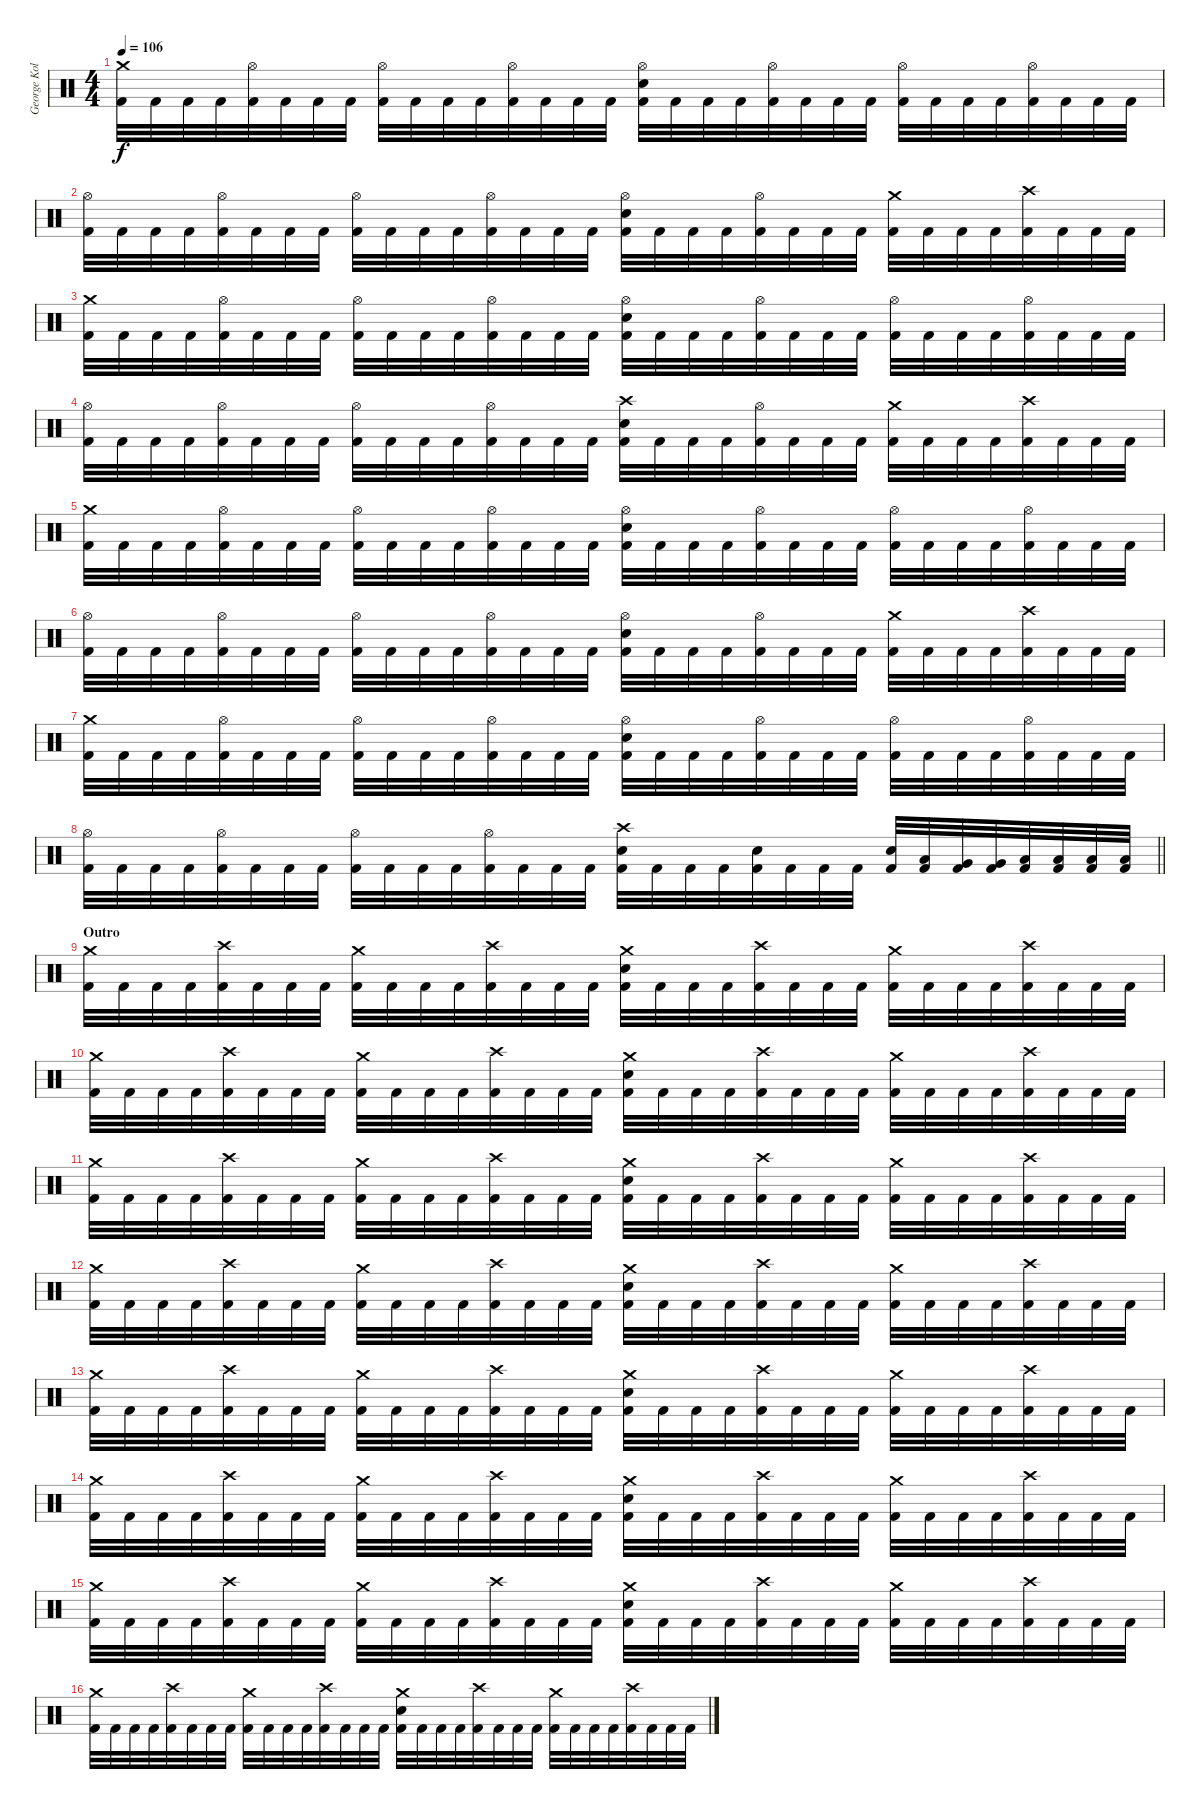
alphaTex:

\track ("George Kollias" "George Kol") {instrument percussion}
\staff {score}
\articulation defaults
\ts (4 4)
\tempo 106
\clef neutral
\ks c
("Crash medium (hit)" "Kick (hit) 2").32{dy f} "Kick (hit) 2".32 "Kick (hit) 2".32 "Kick (hit) 2".32 ("Hi-Hat (open)" "Kick (hit) 2").32 "Kick (hit) 2".32 "Kick (hit) 2".32 "Kick (hit) 2".32 ("Hi-Hat (open)" "Kick (hit) 2").32 "Kick (hit) 2".32 "Kick (hit) 2".32 "Kick (hit) 2".32 ("Hi-Hat (open)" "Kick (hit) 2").32 "Kick (hit) 2".32 "Kick (hit) 2".32 "Kick (hit) 2".32 ("Hi-Hat (open)" "Electric Snare (hit)" "Kick (hit) 2").32 "Kick (hit) 2".32 "Kick (hit) 2".32 "Kick (hit) 2".32 ("Hi-Hat (open)" "Kick (hit) 2").32 "Kick (hit) 2".32 "Kick (hit) 2".32 "Kick (hit) 2".32 ("Hi-Hat (open)" "Kick (hit) 2").32 "Kick (hit) 2".32 "Kick (hit) 2".32 "Kick (hit) 2".32 ("Hi-Hat (open)" "Kick (hit) 2").32 "Kick (hit) 2".32 "Kick (hit) 2".32 "Kick (hit) 2".32 |
("Hi-Hat (open)" "Kick (hit) 2").32 "Kick (hit) 2".32 "Kick (hit) 2".32 "Kick (hit) 2".32 ("Hi-Hat (open)" "Kick (hit) 2").32 "Kick (hit) 2".32 "Kick (hit) 2".32 "Kick (hit) 2".32 ("Hi-Hat (open)" "Kick (hit) 2").32 "Kick (hit) 2".32 "Kick (hit) 2".32 "Kick (hit) 2".32 ("Hi-Hat (open)" "Kick (hit) 2").32 "Kick (hit) 2".32 "Kick (hit) 2".32 "Kick (hit) 2".32 ("Hi-Hat (open)" "Electric Snare (hit)" "Kick (hit) 2").32 "Kick (hit) 2".32 "Kick (hit) 2".32 "Kick (hit) 2".32 ("Hi-Hat (open)" "Kick (hit) 2").32 "Kick (hit) 2".32 "Kick (hit) 2".32 "Kick (hit) 2".32 ("Crash medium (hit)" "Kick (hit) 2").32 "Kick (hit) 2".32 "Kick (hit) 2".32 "Kick (hit) 2".32 ("Crash high (hit)" "Kick (hit) 2").32 "Kick (hit) 2".32 "Kick (hit) 2".32 "Kick (hit) 2".32 |
("Crash medium (hit)" "Kick (hit) 2").32 "Kick (hit) 2".32 "Kick (hit) 2".32 "Kick (hit) 2".32 ("Hi-Hat (open)" "Kick (hit) 2").32 "Kick (hit) 2".32 "Kick (hit) 2".32 "Kick (hit) 2".32 ("Hi-Hat (open)" "Kick (hit) 2").32 "Kick (hit) 2".32 "Kick (hit) 2".32 "Kick (hit) 2".32 ("Hi-Hat (open)" "Kick (hit) 2").32 "Kick (hit) 2".32 "Kick (hit) 2".32 "Kick (hit) 2".32 ("Hi-Hat (open)" "Electric Snare (hit)" "Kick (hit) 2").32 "Kick (hit) 2".32 "Kick (hit) 2".32 "Kick (hit) 2".32 ("Hi-Hat (open)" "Kick (hit) 2").32 "Kick (hit) 2".32 "Kick (hit) 2".32 "Kick (hit) 2".32 ("Hi-Hat (open)" "Kick (hit) 2").32 "Kick (hit) 2".32 "Kick (hit) 2".32 "Kick (hit) 2".32 ("Hi-Hat (open)" "Kick (hit) 2").32 "Kick (hit) 2".32 "Kick (hit) 2".32 "Kick (hit) 2".32 |
("Hi-Hat (open)" "Kick (hit) 2").32 "Kick (hit) 2".32 "Kick (hit) 2".32 "Kick (hit) 2".32 ("Hi-Hat (open)" "Kick (hit) 2").32 "Kick (hit) 2".32 "Kick (hit) 2".32 "Kick (hit) 2".32 ("Hi-Hat (open)" "Kick (hit) 2").32 "Kick (hit) 2".32 "Kick (hit) 2".32 "Kick (hit) 2".32 ("Hi-Hat (open)" "Kick (hit) 2").32 "Kick (hit) 2".32 "Kick (hit) 2".32 "Kick (hit) 2".32 ("Crash high (hit)" "Electric Snare (hit)" "Kick (hit) 2").32 "Kick (hit) 2".32 "Kick (hit) 2".32 "Kick (hit) 2".32 ("Hi-Hat (open)" "Kick (hit) 2").32 "Kick (hit) 2".32 "Kick (hit) 2".32 "Kick (hit) 2".32 ("Crash medium (hit)" "Kick (hit) 2").32 "Kick (hit) 2".32 "Kick (hit) 2".32 "Kick (hit) 2".32 ("Crash high (hit)" "Kick (hit) 2").32 "Kick (hit) 2".32 "Kick (hit) 2".32 "Kick (hit) 2".32 |
("Crash medium (hit)" "Kick (hit) 2").32 "Kick (hit) 2".32 "Kick (hit) 2".32 "Kick (hit) 2".32 ("Hi-Hat (open)" "Kick (hit) 2").32 "Kick (hit) 2".32 "Kick (hit) 2".32 "Kick (hit) 2".32 ("Hi-Hat (open)" "Kick (hit) 2").32 "Kick (hit) 2".32 "Kick (hit) 2".32 "Kick (hit) 2".32 ("Hi-Hat (open)" "Kick (hit) 2").32 "Kick (hit) 2".32 "Kick (hit) 2".32 "Kick (hit) 2".32 ("Hi-Hat (open)" "Electric Snare (hit)" "Kick (hit) 2").32 "Kick (hit) 2".32 "Kick (hit) 2".32 "Kick (hit) 2".32 ("Hi-Hat (open)" "Kick (hit) 2").32 "Kick (hit) 2".32 "Kick (hit) 2".32 "Kick (hit) 2".32 ("Hi-Hat (open)" "Kick (hit) 2").32 "Kick (hit) 2".32 "Kick (hit) 2".32 "Kick (hit) 2".32 ("Hi-Hat (open)" "Kick (hit) 2").32 "Kick (hit) 2".32 "Kick (hit) 2".32 "Kick (hit) 2".32 |
("Hi-Hat (open)" "Kick (hit) 2").32 "Kick (hit) 2".32 "Kick (hit) 2".32 "Kick (hit) 2".32 ("Hi-Hat (open)" "Kick (hit) 2").32 "Kick (hit) 2".32 "Kick (hit) 2".32 "Kick (hit) 2".32 ("Hi-Hat (open)" "Kick (hit) 2").32 "Kick (hit) 2".32 "Kick (hit) 2".32 "Kick (hit) 2".32 ("Hi-Hat (open)" "Kick (hit) 2").32 "Kick (hit) 2".32 "Kick (hit) 2".32 "Kick (hit) 2".32 ("Hi-Hat (open)" "Electric Snare (hit)" "Kick (hit) 2").32 "Kick (hit) 2".32 "Kick (hit) 2".32 "Kick (hit) 2".32 ("Hi-Hat (open)" "Kick (hit) 2").32 "Kick (hit) 2".32 "Kick (hit) 2".32 "Kick (hit) 2".32 ("Crash medium (hit)" "Kick (hit) 2").32 "Kick (hit) 2".32 "Kick (hit) 2".32 "Kick (hit) 2".32 ("Crash high (hit)" "Kick (hit) 2").32 "Kick (hit) 2".32 "Kick (hit) 2".32 "Kick (hit) 2".32 |
("Crash medium (hit)" "Kick (hit) 2").32 "Kick (hit) 2".32 "Kick (hit) 2".32 "Kick (hit) 2".32 ("Hi-Hat (open)" "Kick (hit) 2").32 "Kick (hit) 2".32 "Kick (hit) 2".32 "Kick (hit) 2".32 ("Hi-Hat (open)" "Kick (hit) 2").32 "Kick (hit) 2".32 "Kick (hit) 2".32 "Kick (hit) 2".32 ("Hi-Hat (open)" "Kick (hit) 2").32 "Kick (hit) 2".32 "Kick (hit) 2".32 "Kick (hit) 2".32 ("Hi-Hat (open)" "Electric Snare (hit)" "Kick (hit) 2").32 "Kick (hit) 2".32 "Kick (hit) 2".32 "Kick (hit) 2".32 ("Hi-Hat (open)" "Kick (hit) 2").32 "Kick (hit) 2".32 "Kick (hit) 2".32 "Kick (hit) 2".32 ("Hi-Hat (open)" "Kick (hit) 2").32 "Kick (hit) 2".32 "Kick (hit) 2".32 "Kick (hit) 2".32 ("Hi-Hat (open)" "Kick (hit) 2").32 "Kick (hit) 2".32 "Kick (hit) 2".32 "Kick (hit) 2".32 |
\barLineRight lightlight
("Hi-Hat (open)" "Kick (hit) 2").32 "Kick (hit) 2".32 "Kick (hit) 2".32 "Kick (hit) 2".32 ("Hi-Hat (open)" "Kick (hit) 2").32 "Kick (hit) 2".32 "Kick (hit) 2".32 "Kick (hit) 2".32 ("Hi-Hat (open)" "Kick (hit) 2").32 "Kick (hit) 2".32 "Kick (hit) 2".32 "Kick (hit) 2".32 ("Hi-Hat (open)" "Kick (hit) 2").32 "Kick (hit) 2".32 "Kick (hit) 2".32 "Kick (hit) 2".32 ("Crash high (hit)" "Electric Snare (hit)" "Kick (hit) 2").32 "Kick (hit) 2".32 "Kick (hit) 2".32 "Kick (hit) 2".32 ("Electric Snare (hit)" "Kick (hit) 2").32 "Kick (hit) 2".32 "Kick (hit) 2".32 "Kick (hit) 2".32 ("Electric Snare (hit)" "Kick (hit) 2").32 ("Low Tom (hit)" "Kick (hit) 2").32 ("Very Low Tom (hit)" "Kick (hit) 2").32 ("Very Low Tom (hit)" "Kick (hit) 2").32 ("Low Floor Tom (hit)" "Kick (hit) 2").32 ("Low Floor Tom (hit)" "Kick (hit) 2").32 ("Low Floor Tom (hit)" "Kick (hit) 2").32 ("Low Floor Tom (hit)" "Kick (hit) 2").32 |
\section ("" "Outro")
("Crash medium (hit)" "Kick (hit) 2").32 "Kick (hit) 2".32 "Kick (hit) 2".32 "Kick (hit) 2".32 ("Crash high (hit)" "Kick (hit) 2").32 "Kick (hit) 2".32 "Kick (hit) 2".32 "Kick (hit) 2".32 ("Crash medium (hit)" "Kick (hit) 2").32 "Kick (hit) 2".32 "Kick (hit) 2".32 "Kick (hit) 2".32 ("Crash high (hit)" "Kick (hit) 2").32 "Kick (hit) 2".32 "Kick (hit) 2".32 "Kick (hit) 2".32 ("Crash medium (hit)" "Electric Snare (hit)" "Kick (hit) 2").32 "Kick (hit) 2".32 "Kick (hit) 2".32 "Kick (hit) 2".32 ("Crash high (hit)" "Kick (hit) 2").32 "Kick (hit) 2".32 "Kick (hit) 2".32 "Kick (hit) 2".32 ("Crash medium (hit)" "Kick (hit) 2").32 "Kick (hit) 2".32 "Kick (hit) 2".32 "Kick (hit) 2".32 ("Crash high (hit)" "Kick (hit) 2").32 "Kick (hit) 2".32 "Kick (hit) 2".32 "Kick (hit) 2".32 |
("Crash medium (hit)" "Kick (hit) 2").32 "Kick (hit) 2".32 "Kick (hit) 2".32 "Kick (hit) 2".32 ("Crash high (hit)" "Kick (hit) 2").32 "Kick (hit) 2".32 "Kick (hit) 2".32 "Kick (hit) 2".32 ("Crash medium (hit)" "Kick (hit) 2").32 "Kick (hit) 2".32 "Kick (hit) 2".32 "Kick (hit) 2".32 ("Crash high (hit)" "Kick (hit) 2").32 "Kick (hit) 2".32 "Kick (hit) 2".32 "Kick (hit) 2".32 ("Crash medium (hit)" "Electric Snare (hit)" "Kick (hit) 2").32 "Kick (hit) 2".32 "Kick (hit) 2".32 "Kick (hit) 2".32 ("Crash high (hit)" "Kick (hit) 2").32 "Kick (hit) 2".32 "Kick (hit) 2".32 "Kick (hit) 2".32 ("Crash medium (hit)" "Kick (hit) 2").32 "Kick (hit) 2".32 "Kick (hit) 2".32 "Kick (hit) 2".32 ("Crash high (hit)" "Kick (hit) 2").32 "Kick (hit) 2".32 "Kick (hit) 2".32 "Kick (hit) 2".32 |
("Crash medium (hit)" "Kick (hit) 2").32 "Kick (hit) 2".32 "Kick (hit) 2".32 "Kick (hit) 2".32 ("Crash high (hit)" "Kick (hit) 2").32 "Kick (hit) 2".32 "Kick (hit) 2".32 "Kick (hit) 2".32 ("Crash medium (hit)" "Kick (hit) 2").32 "Kick (hit) 2".32 "Kick (hit) 2".32 "Kick (hit) 2".32 ("Crash high (hit)" "Kick (hit) 2").32 "Kick (hit) 2".32 "Kick (hit) 2".32 "Kick (hit) 2".32 ("Crash medium (hit)" "Electric Snare (hit)" "Kick (hit) 2").32 "Kick (hit) 2".32 "Kick (hit) 2".32 "Kick (hit) 2".32 ("Crash high (hit)" "Kick (hit) 2").32 "Kick (hit) 2".32 "Kick (hit) 2".32 "Kick (hit) 2".32 ("Crash medium (hit)" "Kick (hit) 2").32 "Kick (hit) 2".32 "Kick (hit) 2".32 "Kick (hit) 2".32 ("Crash high (hit)" "Kick (hit) 2").32 "Kick (hit) 2".32 "Kick (hit) 2".32 "Kick (hit) 2".32 |
("Crash medium (hit)" "Kick (hit) 2").32 "Kick (hit) 2".32 "Kick (hit) 2".32 "Kick (hit) 2".32 ("Crash high (hit)" "Kick (hit) 2").32 "Kick (hit) 2".32 "Kick (hit) 2".32 "Kick (hit) 2".32 ("Crash medium (hit)" "Kick (hit) 2").32 "Kick (hit) 2".32 "Kick (hit) 2".32 "Kick (hit) 2".32 ("Crash high (hit)" "Kick (hit) 2").32 "Kick (hit) 2".32 "Kick (hit) 2".32 "Kick (hit) 2".32 ("Crash medium (hit)" "Electric Snare (hit)" "Kick (hit) 2").32 "Kick (hit) 2".32 "Kick (hit) 2".32 "Kick (hit) 2".32 ("Crash high (hit)" "Kick (hit) 2").32 "Kick (hit) 2".32 "Kick (hit) 2".32 "Kick (hit) 2".32 ("Crash medium (hit)" "Kick (hit) 2").32 "Kick (hit) 2".32 "Kick (hit) 2".32 "Kick (hit) 2".32 ("Crash high (hit)" "Kick (hit) 2").32 "Kick (hit) 2".32 "Kick (hit) 2".32 "Kick (hit) 2".32 |
("Crash medium (hit)" "Kick (hit) 2").32 "Kick (hit) 2".32 "Kick (hit) 2".32 "Kick (hit) 2".32 ("Crash high (hit)" "Kick (hit) 2").32 "Kick (hit) 2".32 "Kick (hit) 2".32 "Kick (hit) 2".32 ("Crash medium (hit)" "Kick (hit) 2").32 "Kick (hit) 2".32 "Kick (hit) 2".32 "Kick (hit) 2".32 ("Crash high (hit)" "Kick (hit) 2").32 "Kick (hit) 2".32 "Kick (hit) 2".32 "Kick (hit) 2".32 ("Crash medium (hit)" "Electric Snare (hit)" "Kick (hit) 2").32 "Kick (hit) 2".32 "Kick (hit) 2".32 "Kick (hit) 2".32 ("Crash high (hit)" "Kick (hit) 2").32 "Kick (hit) 2".32 "Kick (hit) 2".32 "Kick (hit) 2".32 ("Crash medium (hit)" "Kick (hit) 2").32 "Kick (hit) 2".32 "Kick (hit) 2".32 "Kick (hit) 2".32 ("Crash high (hit)" "Kick (hit) 2").32 "Kick (hit) 2".32 "Kick (hit) 2".32 "Kick (hit) 2".32 |
("Crash medium (hit)" "Kick (hit) 2").32 "Kick (hit) 2".32 "Kick (hit) 2".32 "Kick (hit) 2".32 ("Crash high (hit)" "Kick (hit) 2").32 "Kick (hit) 2".32 "Kick (hit) 2".32 "Kick (hit) 2".32 ("Crash medium (hit)" "Kick (hit) 2").32 "Kick (hit) 2".32 "Kick (hit) 2".32 "Kick (hit) 2".32 ("Crash high (hit)" "Kick (hit) 2").32 "Kick (hit) 2".32 "Kick (hit) 2".32 "Kick (hit) 2".32 ("Crash medium (hit)" "Electric Snare (hit)" "Kick (hit) 2").32 "Kick (hit) 2".32 "Kick (hit) 2".32 "Kick (hit) 2".32 ("Crash high (hit)" "Kick (hit) 2").32 "Kick (hit) 2".32 "Kick (hit) 2".32 "Kick (hit) 2".32 ("Crash medium (hit)" "Kick (hit) 2").32 "Kick (hit) 2".32 "Kick (hit) 2".32 "Kick (hit) 2".32 ("Crash high (hit)" "Kick (hit) 2").32 "Kick (hit) 2".32 "Kick (hit) 2".32 "Kick (hit) 2".32 |
("Crash medium (hit)" "Kick (hit) 2").32 "Kick (hit) 2".32 "Kick (hit) 2".32 "Kick (hit) 2".32 ("Crash high (hit)" "Kick (hit) 2").32 "Kick (hit) 2".32 "Kick (hit) 2".32 "Kick (hit) 2".32 ("Crash medium (hit)" "Kick (hit) 2").32 "Kick (hit) 2".32 "Kick (hit) 2".32 "Kick (hit) 2".32 ("Crash high (hit)" "Kick (hit) 2").32 "Kick (hit) 2".32 "Kick (hit) 2".32 "Kick (hit) 2".32 ("Crash medium (hit)" "Electric Snare (hit)" "Kick (hit) 2").32 "Kick (hit) 2".32 "Kick (hit) 2".32 "Kick (hit) 2".32 ("Crash high (hit)" "Kick (hit) 2").32 "Kick (hit) 2".32 "Kick (hit) 2".32 "Kick (hit) 2".32 ("Crash medium (hit)" "Kick (hit) 2").32 "Kick (hit) 2".32 "Kick (hit) 2".32 "Kick (hit) 2".32 ("Crash high (hit)" "Kick (hit) 2").32 "Kick (hit) 2".32 "Kick (hit) 2".32 "Kick (hit) 2".32 |
("Crash medium (hit)" "Kick (hit) 2").32 "Kick (hit) 2".32 "Kick (hit) 2".32 "Kick (hit) 2".32 ("Crash high (hit)" "Kick (hit) 2").32 "Kick (hit) 2".32 "Kick (hit) 2".32 "Kick (hit) 2".32 ("Crash medium (hit)" "Kick (hit) 2").32 "Kick (hit) 2".32 "Kick (hit) 2".32 "Kick (hit) 2".32 ("Crash high (hit)" "Kick (hit) 2").32 "Kick (hit) 2".32 "Kick (hit) 2".32 "Kick (hit) 2".32 ("Crash medium (hit)" "Electric Snare (hit)" "Kick (hit) 2").32 "Kick (hit) 2".32 "Kick (hit) 2".32 "Kick (hit) 2".32 ("Crash high (hit)" "Kick (hit) 2").32 "Kick (hit) 2".32 "Kick (hit) 2".32 "Kick (hit) 2".32 ("Crash medium (hit)" "Kick (hit) 2").32 "Kick (hit) 2".32 "Kick (hit) 2".32 "Kick (hit) 2".32 ("Crash high (hit)" "Kick (hit) 2").32 "Kick (hit) 2".32 "Kick (hit) 2".32 "Kick (hit) 2".32
